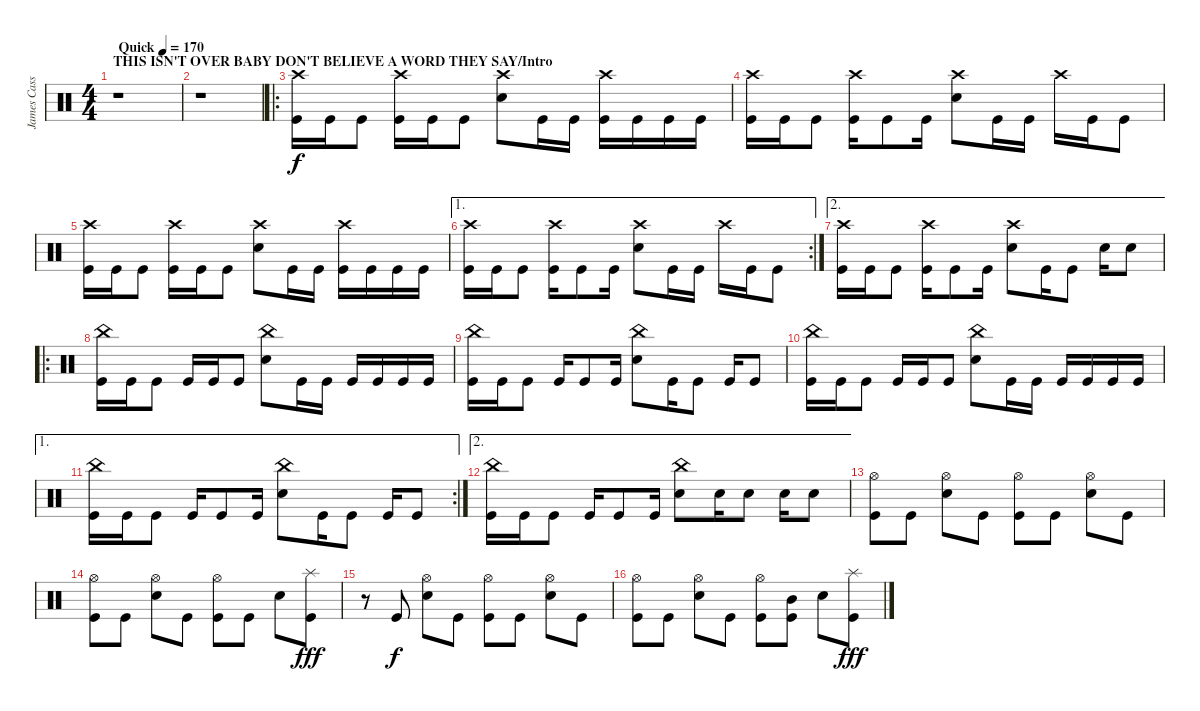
\track ("James Cassells" "James Cass") {instrument percussion}
\staff {score}
\articulation defaults
\ts (4 4)
\section ("" "THIS ISN'T OVER BABY DON'T BELIEVE A WORD THEY SAY/Intro")
\tempo (170 "Quick")
\clef neutral
\ks c
r.1{dy f} |
r.1 |
\ro
("Crash high (hit)" "Kick (hit)").16 "Kick (hit)".16 "Kick (hit)".8 ("Crash high (hit)" "Kick (hit)").16 "Kick (hit)".16 "Kick (hit)".8 ("Crash high (hit)" "Snare (hit) 2").8 "Kick (hit)".16 "Kick (hit)".16 ("Crash high (hit)" "Kick (hit)").16 "Kick (hit)".16 "Kick (hit)".16 "Kick (hit)".16 |
("Crash high (hit)" "Kick (hit)").16 "Kick (hit)".16 "Kick (hit)".8 ("Crash high (hit)" "Kick (hit)").16 "Kick (hit)".8 "Kick (hit)".16 ("Crash high (hit)" "Snare (hit) 2").8 "Kick (hit)".16 "Kick (hit)".16 "Crash high (hit)".16 "Kick (hit)".16 "Kick (hit)".8 |
("Crash high (hit)" "Kick (hit)").16 "Kick (hit)".16 "Kick (hit)".8 ("Crash high (hit)" "Kick (hit)").16 "Kick (hit)".16 "Kick (hit)".8 ("Crash high (hit)" "Snare (hit) 2").8 "Kick (hit)".16 "Kick (hit)".16 ("Crash high (hit)" "Kick (hit)").16 "Kick (hit)".16 "Kick (hit)".16 "Kick (hit)".16 |
\ae 1
\rc 2
("Crash high (hit)" "Kick (hit)").16 "Kick (hit)".16 "Kick (hit)".8 ("Crash high (hit)" "Kick (hit)").16 "Kick (hit)".8 "Kick (hit)".16 ("Crash high (hit)" "Snare (hit) 2").8 "Kick (hit)".16 "Kick (hit)".16 "Crash high (hit)".16 "Kick (hit)".16 "Kick (hit)".8 |
\ae 2
("Crash high (hit)" "Kick (hit)").16 "Kick (hit)".16 "Kick (hit)".8 ("Crash high (hit)" "Kick (hit)").16 "Kick (hit)".8 "Kick (hit)".16 ("Crash high (hit)" "Snare (hit) 2").8 "Kick (hit)".16 "Kick (hit)".8 "Snare (hit) 2".16 "Snare (hit) 2".8 |
\ro
("China (hit)" "Kick (hit)").16 "Kick (hit)".16 "Kick (hit)".8 "Kick (hit)".16 "Kick (hit)".16 "Kick (hit)".8 ("China (hit)" "Snare (hit) 2").8 "Kick (hit)".16 "Kick (hit)".16 "Kick (hit)".16 "Kick (hit)".16 "Kick (hit)".16 "Kick (hit)".16 |
("China (hit)" "Kick (hit)").16 "Kick (hit)".16 "Kick (hit)".8 "Kick (hit)".16 "Kick (hit)".8 "Kick (hit)".16 ("China (hit)" "Snare (hit) 2").8 "Kick (hit)".16 "Kick (hit)".8 "Kick (hit)".16 "Kick (hit)".8 |
("China (hit)" "Kick (hit)").16 "Kick (hit)".16 "Kick (hit)".8 "Kick (hit)".16 "Kick (hit)".16 "Kick (hit)".8 ("China (hit)" "Snare (hit) 2").8 "Kick (hit)".16 "Kick (hit)".16 "Kick (hit)".16 "Kick (hit)".16 "Kick (hit)".16 "Kick (hit)".16 |
\ae 1
\rc 2
("China (hit)" "Kick (hit)").16 "Kick (hit)".16 "Kick (hit)".8 "Kick (hit)".16 "Kick (hit)".8 "Kick (hit)".16 ("China (hit)" "Snare (hit) 2").8 "Kick (hit)".16 "Kick (hit)".8 "Kick (hit)".16 "Kick (hit)".8 |
\ae 2
("China (hit)" "Kick (hit)").16 "Kick (hit)".16 "Kick (hit)".8 "Kick (hit)".16 "Kick (hit)".8 "Kick (hit)".16 ("China (hit)" "Snare (hit) 2").8 "Snare (hit) 2".16 "Snare (hit) 2".8 "Snare (hit) 2".16 "Snare (hit) 2".8 |
("Hi-Hat (open)" "Kick (hit)").8 "Kick (hit)".8 ("Hi-Hat (open)" "Snare (hit) 2").8 "Kick (hit)".8 ("Hi-Hat (open)" "Kick (hit)").8 "Kick (hit)".8 ("Hi-Hat (open)" "Snare (hit) 2").8 "Kick (hit)".8 |
("Hi-Hat (open)" "Kick (hit)").8 "Kick (hit)".8 ("Hi-Hat (open)" "Snare (hit) 2").8 "Kick (hit)".8 ("Hi-Hat (open)" "Kick (hit)").8 "Kick (hit)".8 "Snare (hit) 2".8 ("Splash (hit)" "Kick (hit)").8{dy fff} |
r.8 "Kick (hit)".8{dy f} ("Hi-Hat (open)" "Snare (hit) 2").8 "Kick (hit)".8 ("Hi-Hat (open)" "Kick (hit)").8 "Kick (hit)".8 ("Hi-Hat (open)" "Snare (hit) 2").8 "Kick (hit)".8 |
("Hi-Hat (open)" "Kick (hit)").8 "Kick (hit)".8 ("Hi-Hat (open)" "Snare (hit) 2").8 "Kick (hit)".8 ("Hi-Hat (open)" "Kick (hit)").8 ("Mid Tom (hit)" "Kick (hit)").8 "Snare (hit) 2".8 ("Splash (hit)" "Kick (hit)").8{dy fff}
